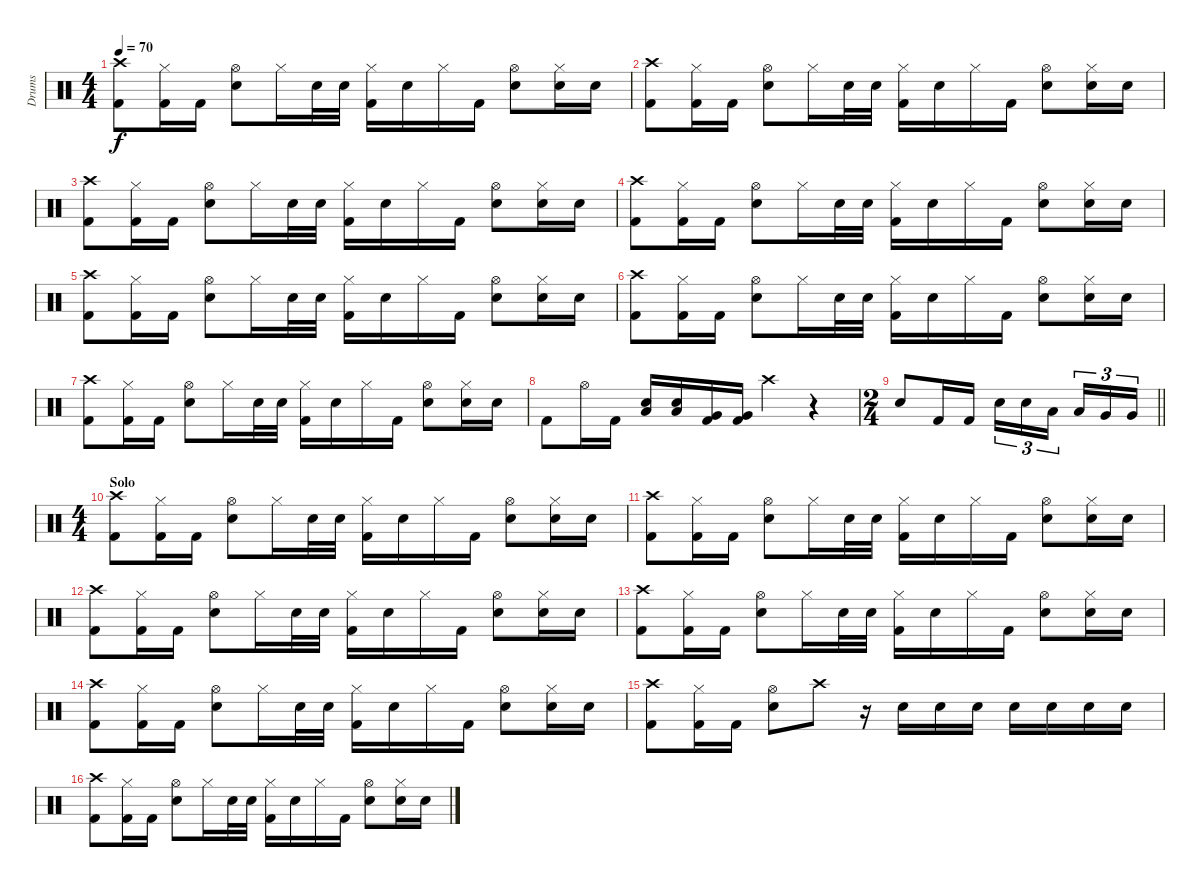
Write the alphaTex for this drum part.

\track ("Drums" "Drums") {instrument percussion bank 10}
\staff {score}
\articulation defaults
\ts (4 4)
\tempo 70
\clef neutral
\ks aminor
("Crash high (hit)" "Kick (hit) 2").8{dy f} ("Hi-Hat (closed)" "Kick (hit) 2").16 "Kick (hit) 2".16 ("Hi-Hat (open)" "Snare (hit) 2").8 "Hi-Hat (closed)".16 "Snare (hit) 2".32 "Snare (hit) 2".32 ("Hi-Hat (closed)" "Kick (hit) 2").16 "Snare (hit) 2".16 "Hi-Hat (closed)".16 "Kick (hit) 2".16 ("Hi-Hat (open)" "Snare (hit) 2").8 ("Hi-Hat (closed)" "Snare (hit) 2").16 "Snare (hit) 2".16 |
("Crash high (hit)" "Kick (hit) 2").8 ("Hi-Hat (closed)" "Kick (hit) 2").16 "Kick (hit) 2".16 ("Hi-Hat (open)" "Snare (hit) 2").8 "Hi-Hat (closed)".16 "Snare (hit) 2".32 "Snare (hit) 2".32 ("Hi-Hat (closed)" "Kick (hit) 2").16 "Snare (hit) 2".16 "Hi-Hat (closed)".16 "Kick (hit) 2".16 ("Hi-Hat (open)" "Snare (hit) 2").8 ("Hi-Hat (closed)" "Snare (hit) 2").16 "Snare (hit) 2".16 |
("Crash high (hit)" "Kick (hit) 2").8 ("Hi-Hat (closed)" "Kick (hit) 2").16 "Kick (hit) 2".16 ("Hi-Hat (open)" "Snare (hit) 2").8 "Hi-Hat (closed)".16 "Snare (hit) 2".32 "Snare (hit) 2".32 ("Hi-Hat (closed)" "Kick (hit) 2").16 "Snare (hit) 2".16 "Hi-Hat (closed)".16 "Kick (hit) 2".16 ("Hi-Hat (open)" "Snare (hit) 2").8 ("Hi-Hat (closed)" "Snare (hit) 2").16 "Snare (hit) 2".16 |
("Crash high (hit)" "Kick (hit) 2").8 ("Hi-Hat (closed)" "Kick (hit) 2").16 "Kick (hit) 2".16 ("Hi-Hat (open)" "Snare (hit) 2").8 "Hi-Hat (closed)".16 "Snare (hit) 2".32 "Snare (hit) 2".32 ("Hi-Hat (closed)" "Kick (hit) 2").16 "Snare (hit) 2".16 "Hi-Hat (closed)".16 "Kick (hit) 2".16 ("Hi-Hat (open)" "Snare (hit) 2").8 ("Hi-Hat (closed)" "Snare (hit) 2").16 "Snare (hit) 2".16 |
("Crash high (hit)" "Kick (hit) 2").8 ("Hi-Hat (closed)" "Kick (hit) 2").16 "Kick (hit) 2".16 ("Hi-Hat (open)" "Snare (hit) 2").8 "Hi-Hat (closed)".16 "Snare (hit) 2".32 "Snare (hit) 2".32 ("Hi-Hat (closed)" "Kick (hit) 2").16 "Snare (hit) 2".16 "Hi-Hat (closed)".16 "Kick (hit) 2".16 ("Hi-Hat (open)" "Snare (hit) 2").8 ("Hi-Hat (closed)" "Snare (hit) 2").16 "Snare (hit) 2".16 |
("Crash high (hit)" "Kick (hit) 2").8 ("Hi-Hat (closed)" "Kick (hit) 2").16 "Kick (hit) 2".16 ("Hi-Hat (open)" "Snare (hit) 2").8 "Hi-Hat (closed)".16 "Snare (hit) 2".32 "Snare (hit) 2".32 ("Hi-Hat (closed)" "Kick (hit) 2").16 "Snare (hit) 2".16 "Hi-Hat (closed)".16 "Kick (hit) 2".16 ("Hi-Hat (open)" "Snare (hit) 2").8 ("Hi-Hat (closed)" "Snare (hit) 2").16 "Snare (hit) 2".16 |
("Crash high (hit)" "Kick (hit) 2").8 ("Hi-Hat (closed)" "Kick (hit) 2").16 "Kick (hit) 2".16 ("Hi-Hat (open)" "Snare (hit) 2").8 "Hi-Hat (closed)".16 "Snare (hit) 2".32 "Snare (hit) 2".32 ("Hi-Hat (closed)" "Kick (hit) 2").16 "Snare (hit) 2".16 "Hi-Hat (closed)".16 "Kick (hit) 2".16 ("Hi-Hat (open)" "Snare (hit) 2").8 ("Hi-Hat (closed)" "Snare (hit) 2").16 "Snare (hit) 2".16 |
"Kick (hit) 2".8 "Hi-Hat (open)".16 "Kick (hit) 2".16 ("Snare (hit) 2" "Low Tom (hit)").16 ("Snare (hit) 2" "Low Tom (hit)").16 ("Very Low Tom (hit)" "Kick (hit) 2").16 ("Very Low Tom (hit)" "Kick (hit) 2").16 "Crash high (hit)".4 r.4 |
\ts (2 4)
\barLineRight lightlight
\ks c "Snare (hit) 2".8 "Kick (hit) 2".16 "Kick (hit) 2".16 "Snare (hit) 2".16{tu (3 2)} "Snare (hit) 2".16{tu (3 2)} "Low Tom (hit)".16{tu (3 2) beam splitsecondary} "Low Tom (hit)".16{tu (3 2)} "Very Low Tom (hit)".16{tu (3 2)} "Very Low Tom (hit)".16{tu (3 2)}
|
\ts (4 4)
\section ("" "Solo")
("Crash high (hit)" "Kick (hit) 2").8 ("Hi-Hat (closed)" "Kick (hit) 2").16 "Kick (hit) 2".16 ("Hi-Hat (open)" "Snare (hit) 2").8 "Hi-Hat (closed)".16 "Snare (hit) 2".32 "Snare (hit) 2".32 ("Hi-Hat (closed)" "Kick (hit) 2").16 "Snare (hit) 2".16 "Hi-Hat (closed)".16 "Kick (hit) 2".16 ("Hi-Hat (open)" "Snare (hit) 2").8 ("Hi-Hat (closed)" "Snare (hit) 2").16 "Snare (hit) 2".16 |
("Crash high (hit)" "Kick (hit) 2").8 ("Hi-Hat (closed)" "Kick (hit) 2").16 "Kick (hit) 2".16 ("Hi-Hat (open)" "Snare (hit) 2").8 "Hi-Hat (closed)".16 "Snare (hit) 2".32 "Snare (hit) 2".32 ("Hi-Hat (closed)" "Kick (hit) 2").16 "Snare (hit) 2".16 "Hi-Hat (closed)".16 "Kick (hit) 2".16 ("Hi-Hat (open)" "Snare (hit) 2").8 ("Hi-Hat (closed)" "Snare (hit) 2").16 "Snare (hit) 2".16 |
("Crash high (hit)" "Kick (hit) 2").8 ("Hi-Hat (closed)" "Kick (hit) 2").16 "Kick (hit) 2".16 ("Hi-Hat (open)" "Snare (hit) 2").8 "Hi-Hat (closed)".16 "Snare (hit) 2".32 "Snare (hit) 2".32 ("Hi-Hat (closed)" "Kick (hit) 2").16 "Snare (hit) 2".16 "Hi-Hat (closed)".16 "Kick (hit) 2".16 ("Hi-Hat (open)" "Snare (hit) 2").8 ("Hi-Hat (closed)" "Snare (hit) 2").16 "Snare (hit) 2".16 |
("Crash high (hit)" "Kick (hit) 2").8 ("Hi-Hat (closed)" "Kick (hit) 2").16 "Kick (hit) 2".16 ("Hi-Hat (open)" "Snare (hit) 2").8 "Hi-Hat (closed)".16 "Snare (hit) 2".32 "Snare (hit) 2".32 ("Hi-Hat (closed)" "Kick (hit) 2").16 "Snare (hit) 2".16 "Hi-Hat (closed)".16 "Kick (hit) 2".16 ("Hi-Hat (open)" "Snare (hit) 2").8 ("Hi-Hat (closed)" "Snare (hit) 2").16 "Snare (hit) 2".16 |
("Crash high (hit)" "Kick (hit) 2").8 ("Hi-Hat (closed)" "Kick (hit) 2").16 "Kick (hit) 2".16 ("Hi-Hat (open)" "Snare (hit) 2").8 "Hi-Hat (closed)".16 "Snare (hit) 2".32 "Snare (hit) 2".32 ("Hi-Hat (closed)" "Kick (hit) 2").16 "Snare (hit) 2".16 "Hi-Hat (closed)".16 "Kick (hit) 2".16 ("Hi-Hat (open)" "Snare (hit) 2").8 ("Hi-Hat (closed)" "Snare (hit) 2").16 "Snare (hit) 2".16 |
("Crash high (hit)" "Kick (hit) 2").8 ("Hi-Hat (closed)" "Kick (hit) 2").16 "Kick (hit) 2".16 ("Hi-Hat (open)" "Snare (hit) 2").8 "Crash high (hit)".8 r.16 "Snare (hit) 2".16 "Snare (hit) 2".16 "Snare (hit) 2".16 "Snare (hit) 2".16 "Snare (hit) 2".16 "Snare (hit) 2".16 "Snare (hit) 2".16 |
("Crash high (hit)" "Kick (hit) 2").8 ("Hi-Hat (closed)" "Kick (hit) 2").16 "Kick (hit) 2".16 ("Hi-Hat (open)" "Snare (hit) 2").8 "Hi-Hat (closed)".16 "Snare (hit) 2".32 "Snare (hit) 2".32 ("Hi-Hat (closed)" "Kick (hit) 2").16 "Snare (hit) 2".16 "Hi-Hat (closed)".16 "Kick (hit) 2".16 ("Hi-Hat (open)" "Snare (hit) 2").8 ("Hi-Hat (closed)" "Snare (hit) 2").16 "Snare (hit) 2".16
